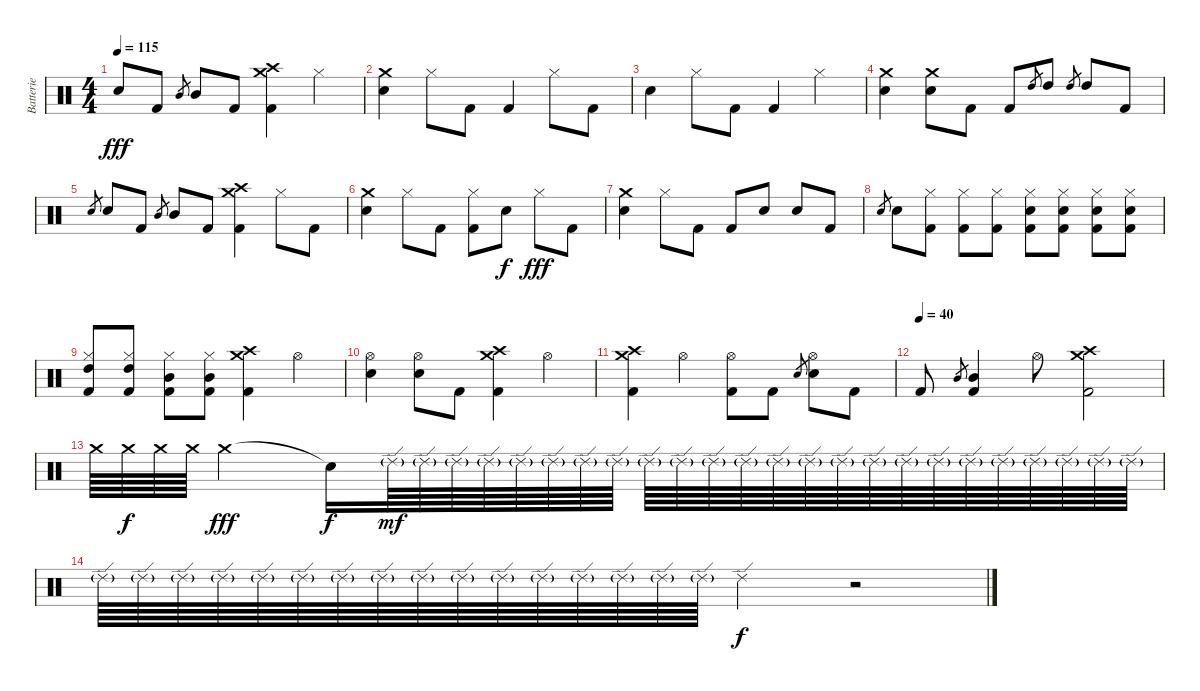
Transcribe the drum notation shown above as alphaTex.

\track ("Batterie" "Batterie") {instrument percussion}
\staff {score}
\articulation defaults
\ts (4 4)
\tempo 115
\clef neutral
\ks c "Snare (hit) 2".8{dy fff} "Kick (hit) 2".8 "Mid Tom (hit)".8{gr} "Mid Tom (hit)".8 "Kick (hit) 2".8
("Crash medium (hit)" "Crash high (hit)" "Kick (hit) 2").4 "Hi-Hat (closed)".4 |
("Crash medium (hit)" "Snare (hit) 2").4 "Hi-Hat (closed)".8 "Kick (hit) 2".8 "Kick (hit) 2".4 "Hi-Hat (closed)".8 "Kick (hit) 2".8 |
"Snare (hit) 2".4 "Hi-Hat (closed)".8 "Kick (hit) 2".8 "Kick (hit) 2".4 "Hi-Hat (closed)".4 |
("Crash medium (hit)" "Snare (hit) 2").4 ("Crash medium (hit)" "Snare (hit) 2").8 "Kick (hit) 2".8 "Kick (hit) 2".8 "High Tom (hit)".8{gr} "High Tom (hit)".8 "High Tom (hit)".8{gr} "High Tom (hit)".8 "Kick (hit) 2".8 |
"Snare (hit) 2".8{gr} "Snare (hit) 2".8 "Kick (hit) 2".8 "Mid Tom (hit)".8{gr} "Mid Tom (hit)".8 "Kick (hit) 2".8 ("Crash medium (hit)" "Crash high (hit)" "Kick (hit) 2").4 "Hi-Hat (closed)".8 "Kick (hit) 2".8 |
("Crash medium (hit)" "Snare (hit) 2").4 "Hi-Hat (closed)".8 "Kick (hit) 2".8 ("Hi-Hat (closed)" "Kick (hit) 2").8 "Snare (hit) 2".8{dy f} "Hi-Hat (closed)".8{dy fff} "Kick (hit) 2".8 |
("Crash medium (hit)" "Snare (hit) 2").4 "Hi-Hat (closed)".8 "Kick (hit) 2".8 "Kick (hit) 2".8 "Snare (hit) 2".8 "Snare (hit) 2".8 "Kick (hit) 2".8 |
"Snare (hit) 2".8{gr} "Snare (hit) 2".8 ("Hi-Hat (closed)" "Kick (hit) 2").8 ("Hi-Hat (closed)" "Kick (hit) 2").8 ("Hi-Hat (closed)" "Kick (hit) 2").8 ("Hi-Hat (closed)" "Snare (hit) 2" "Kick (hit) 2").8 ("Hi-Hat (closed)" "Snare (hit) 2" "Kick (hit) 2").8 ("Hi-Hat (closed)" "Snare (hit) 2" "Kick (hit) 2").8 ("Hi-Hat (closed)" "Snare (hit) 2" "Kick (hit) 2").8 |
("Hi-Hat (closed)" "High Tom (hit)" "Kick (hit) 2").8 ("Hi-Hat (closed)" "High Tom (hit)" "Kick (hit) 2").8 ("Hi-Hat (closed)" "Mid Tom (hit)" "Kick (hit) 2").8 ("Hi-Hat (closed)" "Mid Tom (hit)" "Kick (hit) 2").8 ("Crash medium (hit)" "Crash high (hit)" "Kick (hit) 2").4 "Hi-Hat (open)".4 |
("Hi-Hat (open)" "Snare (hit) 2").4 ("Hi-Hat (open)" "Snare (hit) 2").8 "Kick (hit) 2".8 ("Crash medium (hit)" "Crash high (hit)" "Kick (hit) 2").4 "Hi-Hat (open)".4 |
("Crash medium (hit)" "Crash high (hit)" "Kick (hit) 2").4 "Hi-Hat (open)".4 ("Hi-Hat (open)" "Kick (hit) 2").8 "Kick (hit) 2".8 "Snare (hit) 2".8{gr} ("Hi-Hat (open)" "Snare (hit) 2").8 "Kick (hit) 2".8 |
\tempo (40)
"Kick (hit) 2".8 "Mid Tom (hit)".8{gr} ("Mid Tom (hit)" "Kick (hit) 2").4 "Hi-Hat (open)".8 ("Crash medium (hit)" "Crash high (hit)" "Kick (hit) 2").2 |
"Crash medium (hit)".64 "Crash medium (hit)".64{dy f} "Crash medium (hit)".64 "Crash medium (hit)".64 "Crash medium (hit)".2{dy fff} "Snare (hit)"{t}.16{dy f} "Ride (edge) 2"{g}.64{dy mf} "Ride (edge) 2"{g}.64 "Ride (edge) 2"{g}.64 "Ride (edge) 2"{g}.64 "Ride (edge) 2"{g}.64 "Ride (edge) 2"{g}.64 "Ride (edge) 2"{g}.64 "Ride (edge) 2"{g}.64 "Ride (edge) 2"{g}.64 "Ride (edge) 2"{g}.64 "Ride (edge) 2"{g}.64 "Ride (edge) 2"{g}.64 "Ride (edge) 2"{g}.64 "Ride (edge) 2"{g}.64 "Ride (edge) 2"{g}.64 "Ride (edge) 2"{g}.64 "Ride (edge) 2"{g}.64 "Ride (edge) 2"{g}.64 "Ride (edge) 2"{g}.64 "Ride (edge) 2"{g}.64 "Ride (edge) 2"{g}.64 "Ride (edge) 2"{g}.64 "Ride (edge) 2"{g}.64 "Ride (edge) 2"{g}.64 |
"Ride (edge) 2"{g}.64 "Ride (edge) 2"{g}.64 "Ride (edge) 2"{g}.64 "Ride (edge) 2"{g}.64 "Ride (edge) 2"{g}.64 "Ride (edge) 2"{g}.64 "Ride (edge) 2"{g}.64 "Ride (edge) 2"{g}.64 "Ride (edge) 2"{g}.64 "Ride (edge) 2"{g}.64 "Ride (edge) 2"{g}.64 "Ride (edge) 2"{g}.64 "Ride (edge) 2"{g}.64 "Ride (edge) 2"{g}.64 "Ride (edge) 2"{g}.64 "Ride (edge) 2"{g}.64 "Ride (edge) 2".4{dy f} r.2
